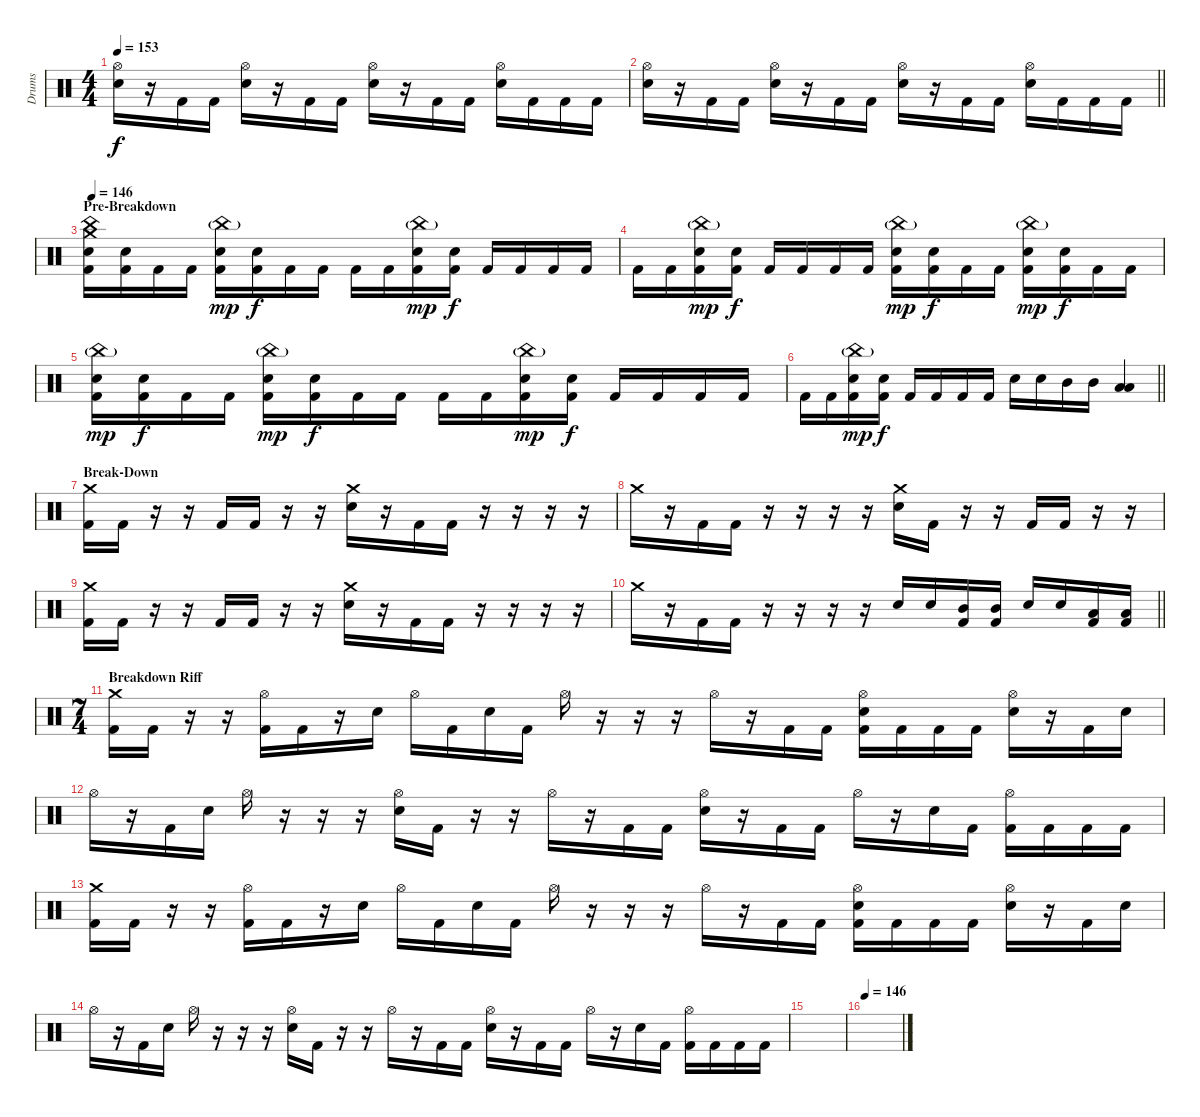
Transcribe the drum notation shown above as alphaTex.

\track ("Drums" "Drums") {instrument percussion}
\staff {score}
\articulation defaults
\ts (4 4)
\tempo 153
\clef neutral
\ks c
("Hi-Hat (open)" "Electric Snare (hit)").16{dy f} r.16 "Kick (hit) 2".16 "Kick (hit) 2".16 ("Hi-Hat (open)" "Electric Snare (hit)").16 r.16 "Kick (hit) 2".16 "Kick (hit) 2".16 ("Hi-Hat (open)" "Electric Snare (hit)").16 r.16 "Kick (hit) 2".16 "Kick (hit) 2".16 ("Hi-Hat (open)" "Electric Snare (hit)").16 "Kick (hit) 2".16 "Kick (hit) 2".16 "Kick (hit) 2".16 |
\barLineRight lightlight
("Hi-Hat (open)" "Electric Snare (hit)").16 r.16 "Kick (hit) 2".16 "Kick (hit) 2".16 ("Hi-Hat (open)" "Electric Snare (hit)").16 r.16 "Kick (hit) 2".16 "Kick (hit) 2".16 ("Hi-Hat (open)" "Electric Snare (hit)").16 r.16 "Kick (hit) 2".16 "Kick (hit) 2".16 ("Hi-Hat (open)" "Electric Snare (hit)").16 "Kick (hit) 2".16 "Kick (hit) 2".16 "Kick (hit) 2".16 |
\section ("" "Pre-Breakdown")
\tempo 146
("Crash medium (hit)" "China (hit)" "Electric Snare (hit)" "Kick (hit) 2").16 ("Electric Snare (hit)" "Kick (hit) 2").16 "Kick (hit) 2".16 "Kick (hit) 2".16 ("China (hit)"{g} "Electric Snare (hit)" "Kick (hit) 2").16{dy mp} ("Electric Snare (hit)" "Kick (hit) 2").16{dy f} "Kick (hit) 2".16 "Kick (hit) 2".16 "Kick (hit) 2".16 "Kick (hit) 2".16 ("China (hit)"{g} "Electric Snare (hit)" "Kick (hit) 2").16{dy mp} ("Electric Snare (hit)" "Kick (hit) 2").16{dy f} "Kick (hit) 2".16 "Kick (hit) 2".16 "Kick (hit) 2".16 "Kick (hit) 2".16 |
"Kick (hit) 2".16 "Kick (hit) 2".16 ("China (hit)"{g} "Electric Snare (hit)" "Kick (hit) 2").16{dy mp} ("Electric Snare (hit)" "Kick (hit) 2").16{dy f} "Kick (hit) 2".16 "Kick (hit) 2".16 "Kick (hit) 2".16 "Kick (hit) 2".16 ("China (hit)"{g} "Electric Snare (hit)" "Kick (hit) 2").16{dy mp} ("Electric Snare (hit)" "Kick (hit) 2").16{dy f} "Kick (hit) 2".16 "Kick (hit) 2".16 ("China (hit)"{g} "Electric Snare (hit)" "Kick (hit) 2").16{dy mp} ("Electric Snare (hit)" "Kick (hit) 2").16{dy f} "Kick (hit) 2".16 "Kick (hit) 2".16 |
("China (hit)"{g} "Electric Snare (hit)" "Kick (hit) 2").16{dy mp} ("Electric Snare (hit)" "Kick (hit) 2").16{dy f} "Kick (hit) 2".16 "Kick (hit) 2".16 ("China (hit)"{g} "Electric Snare (hit)" "Kick (hit) 2").16{dy mp} ("Electric Snare (hit)" "Kick (hit) 2").16{dy f} "Kick (hit) 2".16 "Kick (hit) 2".16 "Kick (hit) 2".16 "Kick (hit) 2".16 ("China (hit)"{g} "Electric Snare (hit)" "Kick (hit) 2").16{dy mp} ("Electric Snare (hit)" "Kick (hit) 2").16{dy f} "Kick (hit) 2".16 "Kick (hit) 2".16 "Kick (hit) 2".16 "Kick (hit) 2".16 |
\barLineRight lightlight "Kick (hit) 2".16 "Kick (hit) 2".16
("China (hit)"{g} "Electric Snare (hit)" "Kick (hit) 2").16{dy mp} ("Electric Snare (hit)" "Kick (hit) 2").16{dy f} "Kick (hit) 2".16 "Kick (hit) 2".16 "Kick (hit) 2".16 "Kick (hit) 2".16 "Electric Snare (hit)".16 "Electric Snare (hit)".16 "Mid Tom (hit)".16 "Mid Tom (hit)".16 ("Low Tom (hit)" "Low Tom (hit)").4 |
\section ("" "Break-Down")
("Crash medium (hit)" "Kick (hit) 2").16 "Kick (hit) 2".16 r.16 r.16 "Kick (hit) 2".16 "Kick (hit) 2".16 r.16 r.16 ("Crash medium (hit)" "Electric Snare (hit)").16 r.16 "Kick (hit) 2".16 "Kick (hit) 2".16 r.16 r.16 r.16 r.16 |
"Crash medium (hit)".16 r.16 "Kick (hit) 2".16 "Kick (hit) 2".16 r.16 r.16 r.16 r.16 ("Crash medium (hit)" "Electric Snare (hit)").16 "Kick (hit) 2".16 r.16 r.16 "Kick (hit) 2".16 "Kick (hit) 2".16 r.16 r.16 |
("Crash medium (hit)" "Kick (hit) 2").16 "Kick (hit) 2".16 r.16 r.16 "Kick (hit) 2".16 "Kick (hit) 2".16 r.16 r.16 ("Crash medium (hit)" "Electric Snare (hit)").16 r.16 "Kick (hit) 2".16 "Kick (hit) 2".16 r.16 r.16 r.16 r.16 |
\barLineRight lightlight "Crash medium (hit)".16
r.16 "Kick (hit) 2".16 "Kick (hit) 2".16 r.16 r.16 r.16 r.16 "Electric Snare (hit)".16 "Electric Snare (hit)".16 ("Mid Tom (hit)" "Kick (hit) 2").16 ("Mid Tom (hit)" "Kick (hit) 2").16 "Electric Snare (hit)".16 "Electric Snare (hit)".16 ("Low Tom (hit)" "Kick (hit) 2").16 ("Low Tom (hit)" "Kick (hit) 2").16 |
\ts (7 4)
\section ("" "Breakdown Riff")
("Crash medium (hit)" "Kick (hit) 2").16 "Kick (hit) 2".16 r.16 r.16 ("Hi-Hat (open)" "Kick (hit) 2").16 "Kick (hit) 2".16 r.16 "Electric Snare (hit)".16 "Hi-Hat (open)".16 "Kick (hit) 2".16 "Electric Snare (hit)".16 "Kick (hit) 2".16 "Hi-Hat (open)".16 r.16 r.16 r.16 "Hi-Hat (open)".16 r.16 "Kick (hit) 2".16 "Kick (hit) 2".16 ("Hi-Hat (open)" "Electric Snare (hit)" "Kick (hit) 2").16 "Kick (hit) 2".16 "Kick (hit) 2".16 "Kick (hit) 2".16 ("Hi-Hat (open)" "Electric Snare (hit)").16 r.16 "Kick (hit) 2".16 "Electric Snare (hit)".16 |
"Hi-Hat (open)".16 r.16 "Kick (hit) 2".16 "Electric Snare (hit)".16 "Hi-Hat (open)".16 r.16 r.16 r.16 ("Hi-Hat (open)" "Electric Snare (hit)").16 "Kick (hit) 2".16 r.16 r.16 "Hi-Hat (open)".16 r.16 "Kick (hit) 2".16 "Kick (hit) 2".16 ("Hi-Hat (open)" "Electric Snare (hit)").16 r.16 "Kick (hit) 2".16 "Kick (hit) 2".16 "Hi-Hat (open)".16 r.16 "Electric Snare (hit)".16 "Kick (hit) 2".16 ("Hi-Hat (open)" "Kick (hit) 2").16 "Kick (hit) 2".16 "Kick (hit) 2".16 "Kick (hit) 2".16 |
("Crash medium (hit)" "Kick (hit) 2").16 "Kick (hit) 2".16 r.16 r.16 ("Hi-Hat (open)" "Kick (hit) 2").16 "Kick (hit) 2".16 r.16 "Electric Snare (hit)".16 "Hi-Hat (open)".16 "Kick (hit) 2".16 "Electric Snare (hit)".16 "Kick (hit) 2".16 "Hi-Hat (open)".16 r.16 r.16 r.16 "Hi-Hat (open)".16 r.16 "Kick (hit) 2".16 "Kick (hit) 2".16 ("Hi-Hat (open)" "Electric Snare (hit)" "Kick (hit) 2").16 "Kick (hit) 2".16 "Kick (hit) 2".16 "Kick (hit) 2".16 ("Hi-Hat (open)" "Electric Snare (hit)").16 r.16 "Kick (hit) 2".16 "Electric Snare (hit)".16 |
"Hi-Hat (open)".16 r.16 "Kick (hit) 2".16 "Electric Snare (hit)".16 "Hi-Hat (open)".16 r.16 r.16 r.16 ("Hi-Hat (open)" "Electric Snare (hit)").16 "Kick (hit) 2".16 r.16 r.16 "Hi-Hat (open)".16 r.16 "Kick (hit) 2".16 "Kick (hit) 2".16 ("Hi-Hat (open)" "Electric Snare (hit)").16 r.16 "Kick (hit) 2".16 "Kick (hit) 2".16 "Hi-Hat (open)".16 r.16 "Electric Snare (hit)".16 "Kick (hit) 2".16 ("Hi-Hat (open)" "Kick (hit) 2").16 "Kick (hit) 2".16 "Kick (hit) 2".16 "Kick (hit) 2".16 |
|
\tempo 146
